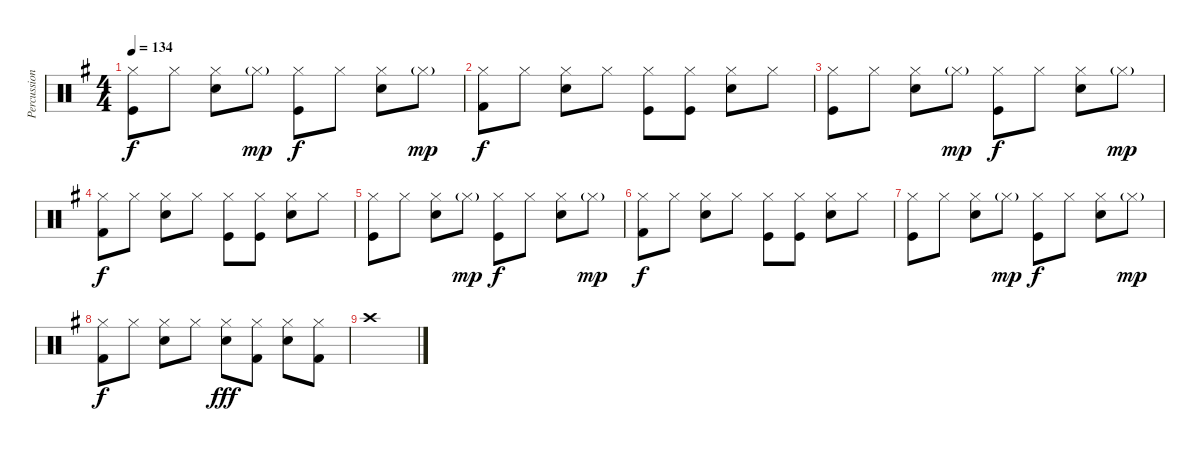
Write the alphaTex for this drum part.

\track ("Percussion" "Percussion") {instrument percussion}
\staff {score}
\articulation defaults
\ts (4 4)
\tempo 134
\clef neutral
\ks g
("Hi-Hat (closed)" "Kick (hit)").8{dy f} "Hi-Hat (closed)".8 ("Hi-Hat (closed)" "Snare (hit) 2").8 "Hi-Hat (closed)"{g}.8{dy mp} ("Hi-Hat (closed)" "Kick (hit)").8{dy f} "Hi-Hat (closed)".8 ("Hi-Hat (closed)" "Snare (hit) 2").8 "Hi-Hat (closed)"{g}.8{dy mp} |
("Hi-Hat (closed)" "Kick (hit) 2").8{dy f} "Hi-Hat (closed)".8 ("Hi-Hat (closed)" "Snare (hit) 2").8 "Hi-Hat (closed)".8 ("Hi-Hat (closed)" "Kick (hit)").8 ("Hi-Hat (closed)" "Kick (hit)").8 ("Hi-Hat (closed)" "Snare (hit) 2").8 "Hi-Hat (closed)".8 |
("Hi-Hat (closed)" "Kick (hit)").8 "Hi-Hat (closed)".8 ("Hi-Hat (closed)" "Snare (hit) 2").8 "Hi-Hat (closed)"{g}.8{dy mp} ("Hi-Hat (closed)" "Kick (hit)").8{dy f} "Hi-Hat (closed)".8 ("Hi-Hat (closed)" "Snare (hit) 2").8 "Hi-Hat (closed)"{g}.8{dy mp} |
("Hi-Hat (closed)" "Kick (hit) 2").8{dy f} "Hi-Hat (closed)".8 ("Hi-Hat (closed)" "Snare (hit) 2").8 "Hi-Hat (closed)".8 ("Hi-Hat (closed)" "Kick (hit)").8 ("Hi-Hat (closed)" "Kick (hit)").8 ("Hi-Hat (closed)" "Snare (hit) 2").8 "Hi-Hat (closed)".8 |
("Hi-Hat (closed)" "Kick (hit)").8 "Hi-Hat (closed)".8 ("Hi-Hat (closed)" "Snare (hit) 2").8 "Hi-Hat (closed)"{g}.8{dy mp} ("Hi-Hat (closed)" "Kick (hit)").8{dy f} "Hi-Hat (closed)".8 ("Hi-Hat (closed)" "Snare (hit) 2").8 "Hi-Hat (closed)"{g}.8{dy mp} |
("Hi-Hat (closed)" "Kick (hit) 2").8{dy f} "Hi-Hat (closed)".8 ("Hi-Hat (closed)" "Snare (hit) 2").8 "Hi-Hat (closed)".8 ("Hi-Hat (closed)" "Kick (hit)").8 ("Hi-Hat (closed)" "Kick (hit)").8 ("Hi-Hat (closed)" "Snare (hit) 2").8 "Hi-Hat (closed)".8 |
("Hi-Hat (closed)" "Kick (hit)").8 "Hi-Hat (closed)".8 ("Hi-Hat (closed)" "Snare (hit) 2").8 "Hi-Hat (closed)"{g}.8{dy mp} ("Hi-Hat (closed)" "Kick (hit)").8{dy f} "Hi-Hat (closed)".8 ("Hi-Hat (closed)" "Snare (hit) 2").8 "Hi-Hat (closed)"{g}.8{dy mp} |
("Hi-Hat (closed)" "Kick (hit) 2").8{dy f} "Hi-Hat (closed)".8 ("Hi-Hat (closed)" "Snare (hit) 2").8 "Hi-Hat (closed)".8 ("Hi-Hat (closed)" "Snare (hit) 2").8{dy fff} ("Hi-Hat (closed)" "Kick (hit) 2").8 ("Hi-Hat (closed)" "Snare (hit) 2").8 ("Hi-Hat (closed)" "Kick (hit) 2").8 |
"Crash high (hit)".1
